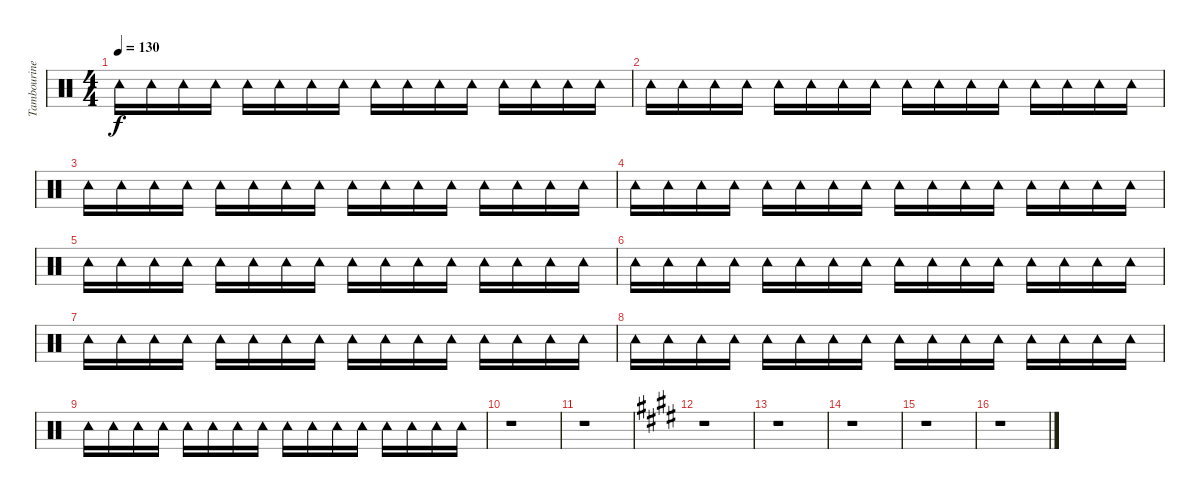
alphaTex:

\track ("Tambourine" "Tambourine") {instrument percussion}
\staff {score}
\articulation defaults
\ts (4 4)
\tempo 130
\clef neutral
\ks c "Tambourine (hit)".16{dy f} "Tambourine (hit)".16 "Tambourine (hit)".16 "Tambourine (hit)".16 "Tambourine (hit)".16 "Tambourine (hit)".16 "Tambourine (hit)".16 "Tambourine (hit)".16 "Tambourine (hit)".16 "Tambourine (hit)".16 "Tambourine (hit)".16 "Tambourine (hit)".16 "Tambourine (hit)".16 "Tambourine (hit)".16 "Tambourine (hit)".16 "Tambourine (hit)".16
|
"Tambourine (hit)".16 "Tambourine (hit)".16 "Tambourine (hit)".16 "Tambourine (hit)".16 "Tambourine (hit)".16 "Tambourine (hit)".16 "Tambourine (hit)".16 "Tambourine (hit)".16 "Tambourine (hit)".16 "Tambourine (hit)".16 "Tambourine (hit)".16 "Tambourine (hit)".16 "Tambourine (hit)".16 "Tambourine (hit)".16 "Tambourine (hit)".16 "Tambourine (hit)".16 |
"Tambourine (hit)".16 "Tambourine (hit)".16 "Tambourine (hit)".16 "Tambourine (hit)".16 "Tambourine (hit)".16 "Tambourine (hit)".16 "Tambourine (hit)".16 "Tambourine (hit)".16 "Tambourine (hit)".16 "Tambourine (hit)".16 "Tambourine (hit)".16 "Tambourine (hit)".16 "Tambourine (hit)".16 "Tambourine (hit)".16 "Tambourine (hit)".16 "Tambourine (hit)".16 |
"Tambourine (hit)".16 "Tambourine (hit)".16 "Tambourine (hit)".16 "Tambourine (hit)".16 "Tambourine (hit)".16 "Tambourine (hit)".16 "Tambourine (hit)".16 "Tambourine (hit)".16 "Tambourine (hit)".16 "Tambourine (hit)".16 "Tambourine (hit)".16 "Tambourine (hit)".16 "Tambourine (hit)".16 "Tambourine (hit)".16 "Tambourine (hit)".16 "Tambourine (hit)".16 |
"Tambourine (hit)".16 "Tambourine (hit)".16 "Tambourine (hit)".16 "Tambourine (hit)".16 "Tambourine (hit)".16 "Tambourine (hit)".16 "Tambourine (hit)".16 "Tambourine (hit)".16 "Tambourine (hit)".16 "Tambourine (hit)".16 "Tambourine (hit)".16 "Tambourine (hit)".16 "Tambourine (hit)".16 "Tambourine (hit)".16 "Tambourine (hit)".16 "Tambourine (hit)".16 |
"Tambourine (hit)".16 "Tambourine (hit)".16 "Tambourine (hit)".16 "Tambourine (hit)".16 "Tambourine (hit)".16 "Tambourine (hit)".16 "Tambourine (hit)".16 "Tambourine (hit)".16 "Tambourine (hit)".16 "Tambourine (hit)".16 "Tambourine (hit)".16 "Tambourine (hit)".16 "Tambourine (hit)".16 "Tambourine (hit)".16 "Tambourine (hit)".16 "Tambourine (hit)".16 |
"Tambourine (hit)".16 "Tambourine (hit)".16 "Tambourine (hit)".16 "Tambourine (hit)".16 "Tambourine (hit)".16 "Tambourine (hit)".16 "Tambourine (hit)".16 "Tambourine (hit)".16 "Tambourine (hit)".16 "Tambourine (hit)".16 "Tambourine (hit)".16 "Tambourine (hit)".16 "Tambourine (hit)".16 "Tambourine (hit)".16 "Tambourine (hit)".16 "Tambourine (hit)".16 |
"Tambourine (hit)".16 "Tambourine (hit)".16 "Tambourine (hit)".16 "Tambourine (hit)".16 "Tambourine (hit)".16 "Tambourine (hit)".16 "Tambourine (hit)".16 "Tambourine (hit)".16 "Tambourine (hit)".16 "Tambourine (hit)".16 "Tambourine (hit)".16 "Tambourine (hit)".16 "Tambourine (hit)".16 "Tambourine (hit)".16 "Tambourine (hit)".16 "Tambourine (hit)".16 |
"Tambourine (hit)".16 "Tambourine (hit)".16 "Tambourine (hit)".16 "Tambourine (hit)".16 "Tambourine (hit)".16 "Tambourine (hit)".16 "Tambourine (hit)".16 "Tambourine (hit)".16 "Tambourine (hit)".16 "Tambourine (hit)".16 "Tambourine (hit)".16 "Tambourine (hit)".16 "Tambourine (hit)".16 "Tambourine (hit)".16 "Tambourine (hit)".16 "Tambourine (hit)".16 |
r.1 |
r.1 |
\ks c#minor
r.1 |
\ks e
r.1 |
\ks c#minor
r.1 |
\ks e
r.1 |
\ks c#minor
r.1
